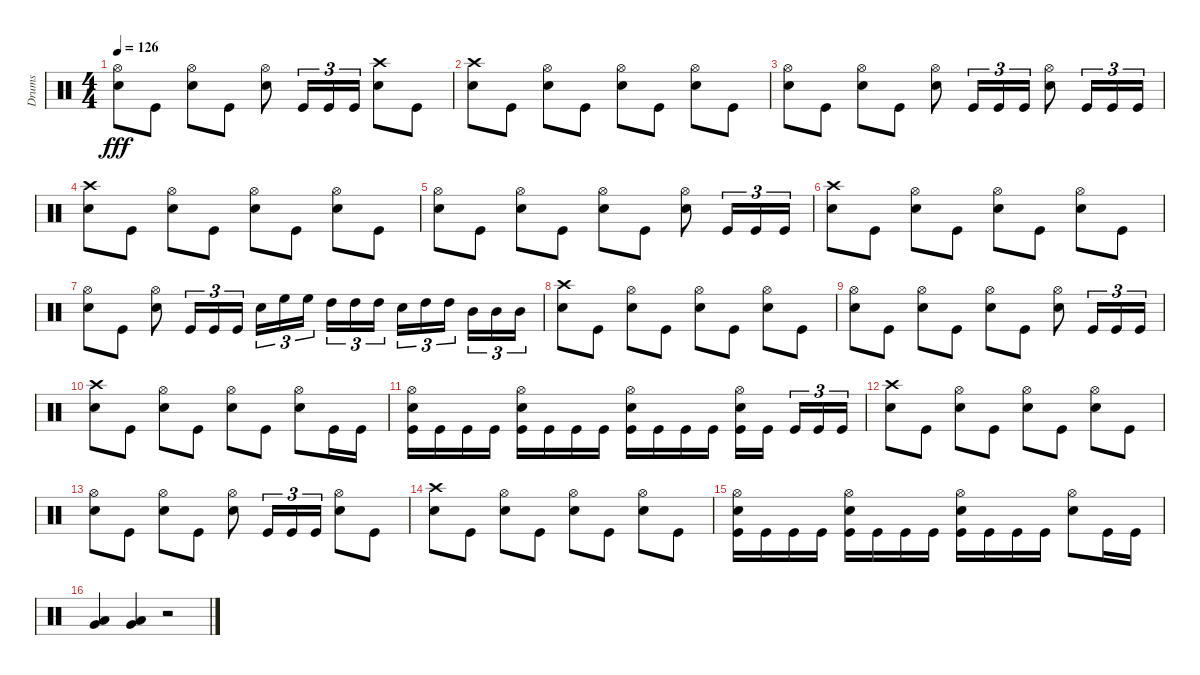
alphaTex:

\track ("Drums" "Drums") {instrument percussion}
\staff {score}
\articulation defaults
\ts (4 4)
\tempo 126
\clef neutral
\ks c
("Hi-Hat (open)" "Snare (hit) 2").8{dy fff} "Kick (hit)".8 ("Hi-Hat (open)" "Snare (hit) 2").8 "Kick (hit)".8 ("Hi-Hat (open)" "Snare (hit) 2").8 "Kick (hit)".16{tu (3 2)} "Kick (hit)".16{tu (3 2)} "Kick (hit)".16{tu (3 2)} ("Crash high (hit)" "Snare (hit) 2").8 "Kick (hit)".8 |
("Crash high (hit)" "Snare (hit) 2").8 "Kick (hit)".8 ("Hi-Hat (open)" "Snare (hit) 2").8 "Kick (hit)".8 ("Hi-Hat (open)" "Snare (hit) 2").8 "Kick (hit)".8 ("Hi-Hat (open)" "Snare (hit) 2").8 "Kick (hit)".8 |
("Hi-Hat (open)" "Snare (hit) 2").8 "Kick (hit)".8 ("Hi-Hat (open)" "Snare (hit) 2").8 "Kick (hit)".8 ("Hi-Hat (open)" "Snare (hit) 2").8 "Kick (hit)".16{tu (3 2)} "Kick (hit)".16{tu (3 2)} "Kick (hit)".16{tu (3 2)} ("Hi-Hat (open)" "Snare (hit) 2").8 "Kick (hit)".16{tu (3 2)} "Kick (hit)".16{tu (3 2)} "Kick (hit)".16{tu (3 2)} |
("Crash high (hit)" "Snare (hit) 2").8 "Kick (hit)".8 ("Hi-Hat (open)" "Snare (hit) 2").8 "Kick (hit)".8 ("Hi-Hat (open)" "Snare (hit) 2").8 "Kick (hit)".8 ("Hi-Hat (open)" "Snare (hit) 2").8 "Kick (hit)".8 |
("Hi-Hat (open)" "Snare (hit) 2").8 "Kick (hit)".8 ("Hi-Hat (open)" "Snare (hit) 2").8 "Kick (hit)".8 ("Hi-Hat (open)" "Snare (hit) 2").8 "Kick (hit)".8 ("Hi-Hat (open)" "Snare (hit) 2").8 "Kick (hit)".16{tu (3 2)} "Kick (hit)".16{tu (3 2)} "Kick (hit)".16{tu (3 2)} |
("Crash high (hit)" "Snare (hit) 2").8 "Kick (hit)".8 ("Hi-Hat (open)" "Snare (hit) 2").8 "Kick (hit)".8 ("Hi-Hat (open)" "Snare (hit) 2").8 "Kick (hit)".8 ("Hi-Hat (open)" "Snare (hit) 2").8 "Kick (hit)".8 |
("Hi-Hat (open)" "Snare (hit) 2").8 "Kick (hit)".8 ("Hi-Hat (open)" "Snare (hit) 2").8 "Kick (hit)".16{tu (3 2)} "Kick (hit)".16{tu (3 2)} "Kick (hit)".16{tu (3 2)} "Snare (hit) 2".16{tu (3 2)} "High Floor Tom (hit)".16{tu (3 2)} "High Floor Tom (hit)".16{tu (3 2) beam splitsecondary} "High Tom (hit)".16{tu (3 2)} "High Tom (hit)".16{tu (3 2)} "High Tom (hit)".16{tu (3 2)} "Snare (hit) 2".16{tu (3 2)} "High Tom (hit)".16{tu (3 2)} "High Tom (hit)".16{tu (3 2) beam splitsecondary} "Mid Tom (hit)".16{tu (3 2)} "Mid Tom (hit)".16{tu (3 2)} "Mid Tom (hit)".16{tu (3 2)} |
("Crash high (hit)" "Snare (hit) 2").8 "Kick (hit)".8 ("Hi-Hat (open)" "Snare (hit) 2").8 "Kick (hit)".8 ("Hi-Hat (open)" "Snare (hit) 2").8 "Kick (hit)".8 ("Hi-Hat (open)" "Snare (hit) 2").8 "Kick (hit)".8 |
("Hi-Hat (open)" "Snare (hit) 2").8 "Kick (hit)".8 ("Hi-Hat (open)" "Snare (hit) 2").8 "Kick (hit)".8 ("Hi-Hat (open)" "Snare (hit) 2").8 "Kick (hit)".8 ("Hi-Hat (open)" "Snare (hit) 2").8 "Kick (hit)".16{tu (3 2)} "Kick (hit)".16{tu (3 2)} "Kick (hit)".16{tu (3 2)} |
("Crash high (hit)" "Snare (hit) 2").8 "Kick (hit)".8 ("Hi-Hat (open)" "Snare (hit) 2").8 "Kick (hit)".8 ("Hi-Hat (open)" "Snare (hit) 2").8 "Kick (hit)".8 ("Hi-Hat (open)" "Snare (hit) 2").8 "Kick (hit)".16 "Kick (hit)".16 |
("Hi-Hat (open)" "Snare (hit) 2" "Kick (hit)").16 "Kick (hit)".16 "Kick (hit)".16 "Kick (hit)".16 ("Hi-Hat (open)" "Snare (hit) 2" "Kick (hit)").16 "Kick (hit)".16 "Kick (hit)".16 "Kick (hit)".16 ("Hi-Hat (open)" "Snare (hit) 2" "Kick (hit)").16 "Kick (hit)".16 "Kick (hit)".16 "Kick (hit)".16 ("Hi-Hat (open)" "Snare (hit) 2" "Kick (hit)").16 "Kick (hit)".16{beam splitsecondary} "Kick (hit)".16{tu (3 2)} "Kick (hit)".16{tu (3 2)} "Kick (hit)".16{tu (3 2)} |
("Crash high (hit)" "Snare (hit) 2").8 "Kick (hit)".8 ("Hi-Hat (open)" "Snare (hit) 2").8 "Kick (hit)".8 ("Hi-Hat (open)" "Snare (hit) 2").8 "Kick (hit)".8 ("Hi-Hat (open)" "Snare (hit) 2").8 "Kick (hit)".8 |
("Hi-Hat (open)" "Snare (hit) 2").8 "Kick (hit)".8 ("Hi-Hat (open)" "Snare (hit) 2").8 "Kick (hit)".8 ("Hi-Hat (open)" "Snare (hit) 2").8 "Kick (hit)".16{tu (3 2)} "Kick (hit)".16{tu (3 2)} "Kick (hit)".16{tu (3 2)} ("Hi-Hat (open)" "Snare (hit) 2").8 "Kick (hit)".8 |
("Crash high (hit)" "Snare (hit) 2").8 "Kick (hit)".8 ("Hi-Hat (open)" "Snare (hit) 2").8 "Kick (hit)".8 ("Hi-Hat (open)" "Snare (hit) 2").8 "Kick (hit)".8 ("Hi-Hat (open)" "Snare (hit) 2").8 "Kick (hit)".8 |
("Hi-Hat (open)" "Snare (hit) 2" "Kick (hit)").16 "Kick (hit)".16 "Kick (hit)".16 "Kick (hit)".16 ("Hi-Hat (open)" "Snare (hit) 2" "Kick (hit)").16 "Kick (hit)".16 "Kick (hit)".16 "Kick (hit)".16 ("Hi-Hat (open)" "Snare (hit) 2" "Kick (hit)").16 "Kick (hit)".16 "Kick (hit)".16 "Kick (hit)".16 ("Hi-Hat (open)" "Snare (hit) 2").8 "Kick (hit)".16 "Kick (hit)".16 |
("Very Low Tom (hit)" "Low Floor Tom (hit)").4 ("Very Low Tom (hit)" "Low Floor Tom (hit)").4 r.2
